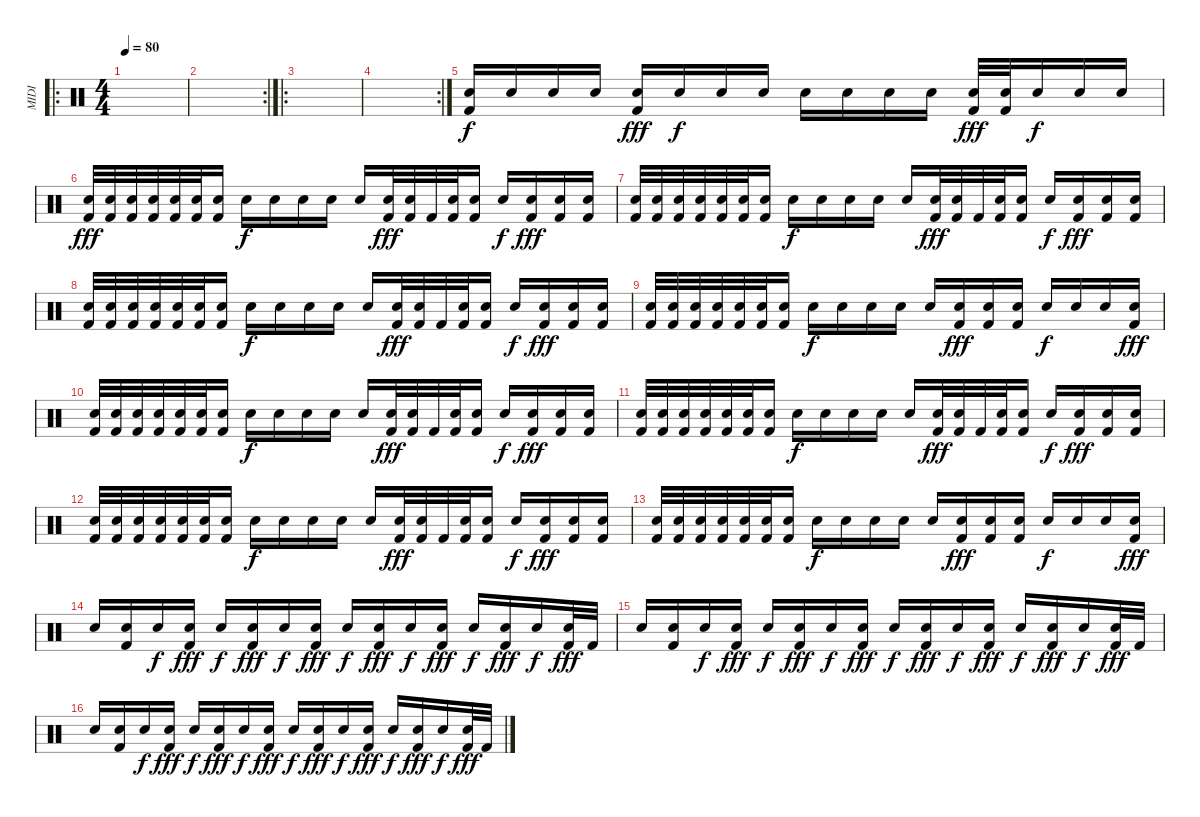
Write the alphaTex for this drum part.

\track ("MIDI" "MIDI") {instrument percussion}
\staff
\articulation defaults
\ro
\ts (4 4)
\tempo 80
\clef neutral
\ks c
|
\rc 2
|
\ro
|
\rc 2
|
("Kick (hit) 2" "Snare (hit)").16 "Snare (hit)".16{dy f} "Snare (hit)".16 "Snare (hit)".16 ("Kick (hit) 2" "Snare (hit)").16{dy fff} "Snare (hit)".16{dy f} "Snare (hit)".16 "Snare (hit)".16 "Snare (hit)".16 "Snare (hit)".16 "Snare (hit)".16 "Snare (hit)".16 ("Kick (hit) 2" "Snare (hit)").32{dy fff} ("Kick (hit) 2" "Snare (hit)").32 "Snare (hit)".16{dy f} "Snare (hit)".16 "Snare (hit)".16 |
("Kick (hit) 2" "Snare (hit)").32{dy fff} ("Kick (hit) 2" "Snare (hit)").32 ("Kick (hit) 2" "Snare (hit)").32 ("Kick (hit) 2" "Snare (hit)").32 ("Kick (hit) 2" "Snare (hit)").32 ("Kick (hit) 2" "Snare (hit)").32 ("Kick (hit) 2" "Snare (hit)").16 "Snare (hit)".16{dy f} "Snare (hit)".16 "Snare (hit)".16 "Snare (hit)".16 "Snare (hit)".16 ("Kick (hit) 2" "Snare (hit)").32{dy fff} ("Kick (hit) 2" "Snare (hit)").32 "Kick (hit) 2".32 ("Kick (hit) 2" "Snare (hit)").32 ("Kick (hit) 2" "Snare (hit)").16 "Snare (hit)".16{dy f} ("Kick (hit) 2" "Snare (hit)").16{dy fff} ("Kick (hit) 2" "Snare (hit)").16 ("Kick (hit) 2" "Snare (hit)").16 |
("Kick (hit) 2" "Snare (hit)").32 ("Kick (hit) 2" "Snare (hit)").32 ("Kick (hit) 2" "Snare (hit)").32 ("Kick (hit) 2" "Snare (hit)").32 ("Kick (hit) 2" "Snare (hit)").32 ("Kick (hit) 2" "Snare (hit)").32 ("Kick (hit) 2" "Snare (hit)").16 "Snare (hit)".16{dy f} "Snare (hit)".16 "Snare (hit)".16 "Snare (hit)".16 "Snare (hit)".16 ("Kick (hit) 2" "Snare (hit)").32{dy fff} ("Kick (hit) 2" "Snare (hit)").32 "Kick (hit) 2".32 ("Kick (hit) 2" "Snare (hit)").32 ("Kick (hit) 2" "Snare (hit)").16 "Snare (hit)".16{dy f} ("Kick (hit) 2" "Snare (hit)").16{dy fff} ("Kick (hit) 2" "Snare (hit)").16 ("Kick (hit) 2" "Snare (hit)").16 |
("Kick (hit) 2" "Snare (hit)").32 ("Kick (hit) 2" "Snare (hit)").32 ("Kick (hit) 2" "Snare (hit)").32 ("Kick (hit) 2" "Snare (hit)").32 ("Kick (hit) 2" "Snare (hit)").32 ("Kick (hit) 2" "Snare (hit)").32 ("Kick (hit) 2" "Snare (hit)").16 "Snare (hit)".16{dy f} "Snare (hit)".16 "Snare (hit)".16 "Snare (hit)".16 "Snare (hit)".16 ("Kick (hit) 2" "Snare (hit)").32{dy fff} ("Kick (hit) 2" "Snare (hit)").32 "Kick (hit) 2".32 ("Kick (hit) 2" "Snare (hit)").32 ("Kick (hit) 2" "Snare (hit)").16 "Snare (hit)".16{dy f} ("Kick (hit) 2" "Snare (hit)").16{dy fff} ("Kick (hit) 2" "Snare (hit)").16 ("Kick (hit) 2" "Snare (hit)").16 |
("Kick (hit) 2" "Snare (hit)").32 ("Kick (hit) 2" "Snare (hit)").32 ("Kick (hit) 2" "Snare (hit)").32 ("Kick (hit) 2" "Snare (hit)").32 ("Kick (hit) 2" "Snare (hit)").32 ("Kick (hit) 2" "Snare (hit)").32 ("Kick (hit) 2" "Snare (hit)").16 "Snare (hit)".16{dy f} "Snare (hit)".16 "Snare (hit)".16 "Snare (hit)".16 "Snare (hit)".16 ("Kick (hit) 2" "Snare (hit)").16{dy fff} ("Kick (hit) 2" "Snare (hit)").16 ("Kick (hit) 2" "Snare (hit)").16 "Snare (hit)".16{dy f} "Snare (hit)".16 "Snare (hit)".16 ("Kick (hit) 2" "Snare (hit)").16{dy fff} |
("Kick (hit) 2" "Snare (hit)").32 ("Kick (hit) 2" "Snare (hit)").32 ("Kick (hit) 2" "Snare (hit)").32 ("Kick (hit) 2" "Snare (hit)").32 ("Kick (hit) 2" "Snare (hit)").32 ("Kick (hit) 2" "Snare (hit)").32 ("Kick (hit) 2" "Snare (hit)").16 "Snare (hit)".16{dy f} "Snare (hit)".16 "Snare (hit)".16 "Snare (hit)".16 "Snare (hit)".16 ("Kick (hit) 2" "Snare (hit)").32{dy fff} ("Kick (hit) 2" "Snare (hit)").32 "Kick (hit) 2".32 ("Kick (hit) 2" "Snare (hit)").32 ("Kick (hit) 2" "Snare (hit)").16 "Snare (hit)".16{dy f} ("Kick (hit) 2" "Snare (hit)").16{dy fff} ("Kick (hit) 2" "Snare (hit)").16 ("Kick (hit) 2" "Snare (hit)").16 |
("Kick (hit) 2" "Snare (hit)").32 ("Kick (hit) 2" "Snare (hit)").32 ("Kick (hit) 2" "Snare (hit)").32 ("Kick (hit) 2" "Snare (hit)").32 ("Kick (hit) 2" "Snare (hit)").32 ("Kick (hit) 2" "Snare (hit)").32 ("Kick (hit) 2" "Snare (hit)").16 "Snare (hit)".16{dy f} "Snare (hit)".16 "Snare (hit)".16 "Snare (hit)".16 "Snare (hit)".16 ("Kick (hit) 2" "Snare (hit)").32{dy fff} ("Kick (hit) 2" "Snare (hit)").32 "Kick (hit) 2".32 ("Kick (hit) 2" "Snare (hit)").32 ("Kick (hit) 2" "Snare (hit)").16 "Snare (hit)".16{dy f} ("Kick (hit) 2" "Snare (hit)").16{dy fff} ("Kick (hit) 2" "Snare (hit)").16 ("Kick (hit) 2" "Snare (hit)").16 |
("Kick (hit) 2" "Snare (hit)").32 ("Kick (hit) 2" "Snare (hit)").32 ("Kick (hit) 2" "Snare (hit)").32 ("Kick (hit) 2" "Snare (hit)").32 ("Kick (hit) 2" "Snare (hit)").32 ("Kick (hit) 2" "Snare (hit)").32 ("Kick (hit) 2" "Snare (hit)").16 "Snare (hit)".16{dy f} "Snare (hit)".16 "Snare (hit)".16 "Snare (hit)".16 "Snare (hit)".16 ("Kick (hit) 2" "Snare (hit)").32{dy fff} ("Kick (hit) 2" "Snare (hit)").32 "Kick (hit) 2".32 ("Kick (hit) 2" "Snare (hit)").32 ("Kick (hit) 2" "Snare (hit)").16 "Snare (hit)".16{dy f} ("Kick (hit) 2" "Snare (hit)").16{dy fff} ("Kick (hit) 2" "Snare (hit)").16 ("Kick (hit) 2" "Snare (hit)").16 |
("Kick (hit) 2" "Snare (hit)").32 ("Kick (hit) 2" "Snare (hit)").32 ("Kick (hit) 2" "Snare (hit)").32 ("Kick (hit) 2" "Snare (hit)").32 ("Kick (hit) 2" "Snare (hit)").32 ("Kick (hit) 2" "Snare (hit)").32 ("Kick (hit) 2" "Snare (hit)").16 "Snare (hit)".16{dy f} "Snare (hit)".16 "Snare (hit)".16 "Snare (hit)".16 "Snare (hit)".16 ("Kick (hit) 2" "Snare (hit)").16{dy fff} ("Kick (hit) 2" "Snare (hit)").16 ("Kick (hit) 2" "Snare (hit)").16 "Snare (hit)".16{dy f} "Snare (hit)".16 "Snare (hit)".16 ("Kick (hit) 2" "Snare (hit)").16{dy fff} |
"Snare (hit)".16 ("Kick (hit) 2" "Snare (hit)").16 "Snare (hit)".16{dy f} ("Kick (hit) 2" "Snare (hit)").16{dy fff} "Snare (hit)".16{dy f} ("Kick (hit) 2" "Snare (hit)").16{dy fff} "Snare (hit)".16{dy f} ("Kick (hit) 2" "Snare (hit)").16{dy fff} "Snare (hit)".16{dy f} ("Kick (hit) 2" "Snare (hit)").16{dy fff} "Snare (hit)".16{dy f} ("Kick (hit) 2" "Snare (hit)").16{dy fff} "Snare (hit)".16{dy f} ("Kick (hit) 2" "Snare (hit)").16{dy fff} "Snare (hit)".16{dy f} ("Kick (hit) 2" "Snare (hit)").32{dy fff} "Kick (hit) 2".32 |
"Snare (hit)".16 ("Kick (hit) 2" "Snare (hit)").16 "Snare (hit)".16{dy f} ("Kick (hit) 2" "Snare (hit)").16{dy fff} "Snare (hit)".16{dy f} ("Kick (hit) 2" "Snare (hit)").16{dy fff} "Snare (hit)".16{dy f} ("Kick (hit) 2" "Snare (hit)").16{dy fff} "Snare (hit)".16{dy f} ("Kick (hit) 2" "Snare (hit)").16{dy fff} "Snare (hit)".16{dy f} ("Kick (hit) 2" "Snare (hit)").16{dy fff} "Snare (hit)".16{dy f} ("Kick (hit) 2" "Snare (hit)").16{dy fff} "Snare (hit)".16{dy f} ("Kick (hit) 2" "Snare (hit)").32{dy fff} "Kick (hit) 2".32 |
"Snare (hit)".16 ("Kick (hit) 2" "Snare (hit)").16 "Snare (hit)".16{dy f} ("Kick (hit) 2" "Snare (hit)").16{dy fff} "Snare (hit)".16{dy f} ("Kick (hit) 2" "Snare (hit)").16{dy fff} "Snare (hit)".16{dy f} ("Kick (hit) 2" "Snare (hit)").16{dy fff} "Snare (hit)".16{dy f} ("Kick (hit) 2" "Snare (hit)").16{dy fff} "Snare (hit)".16{dy f} ("Kick (hit) 2" "Snare (hit)").16{dy fff} "Snare (hit)".16{dy f} ("Kick (hit) 2" "Snare (hit)").16{dy fff} "Snare (hit)".16{dy f} ("Kick (hit) 2" "Snare (hit)").32{dy fff} "Kick (hit) 2".32
